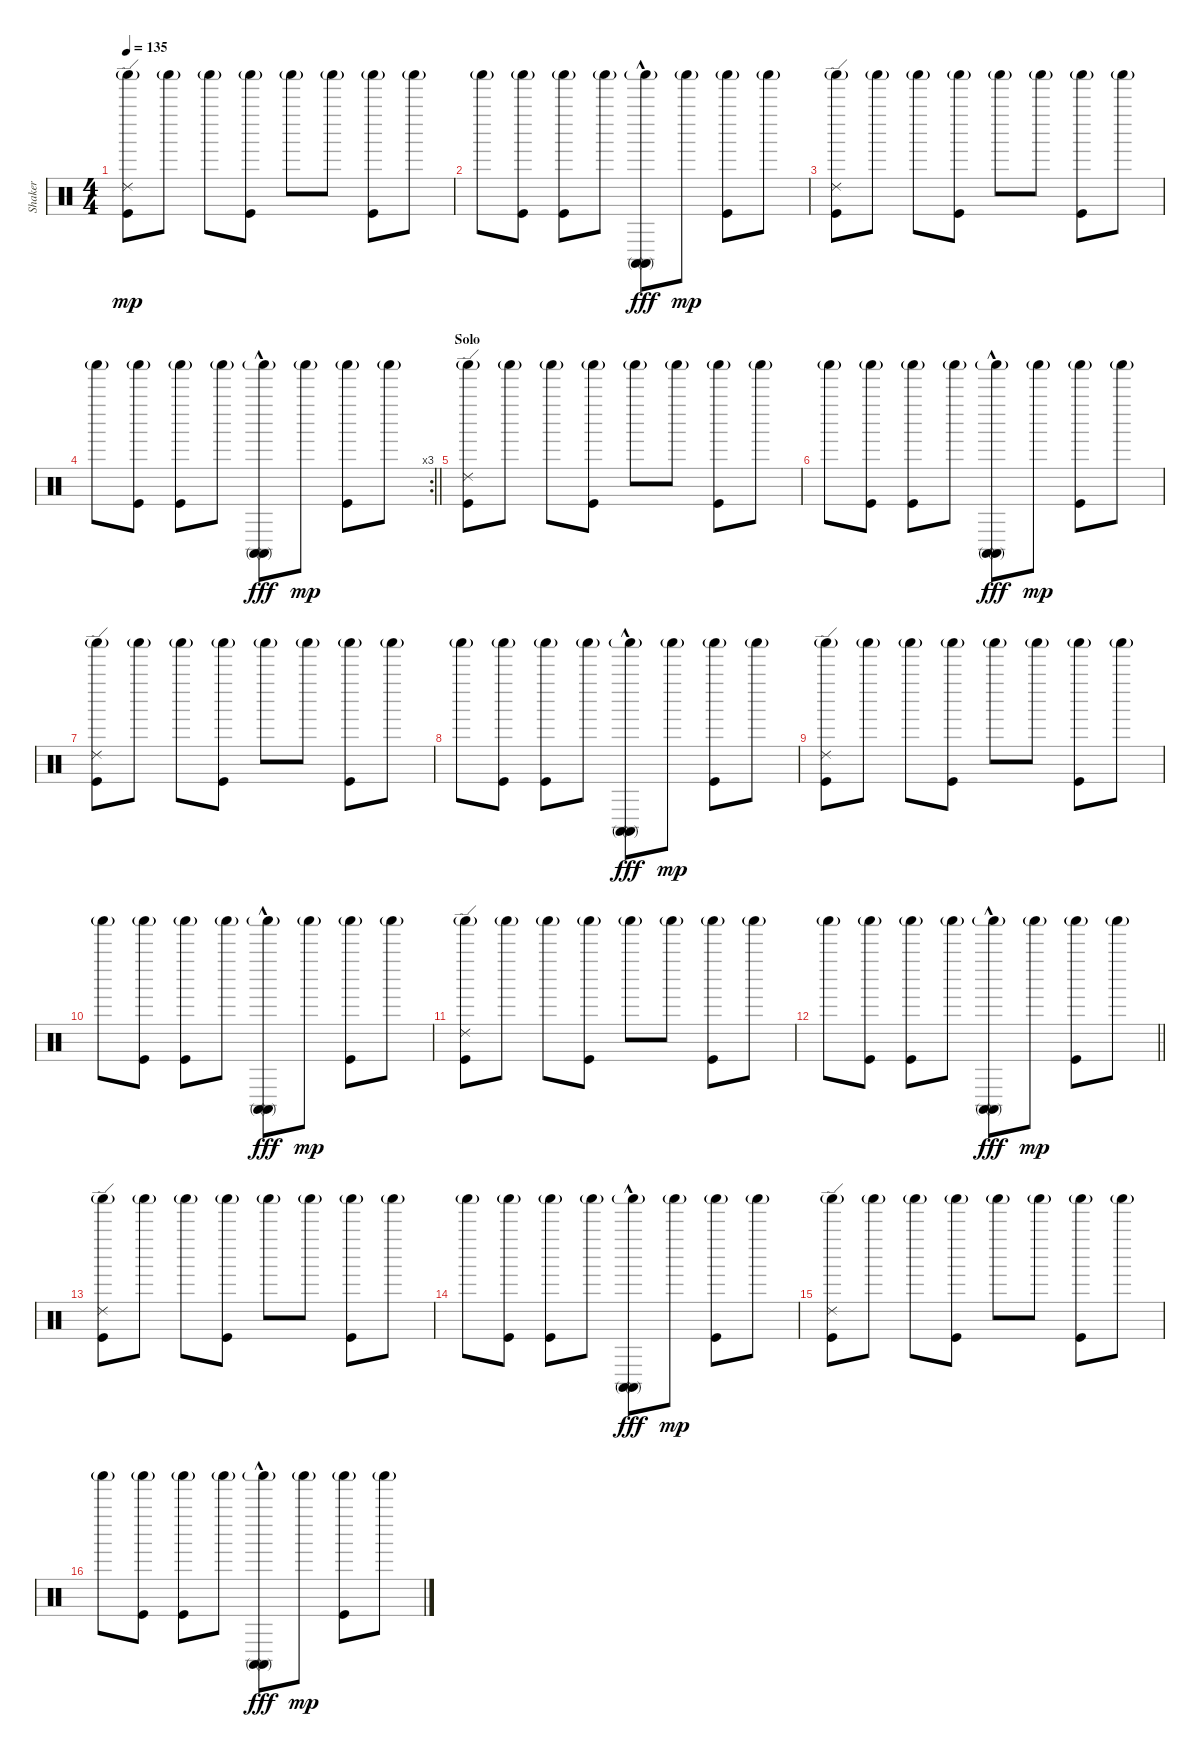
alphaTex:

\track ("Shaker" "Shaker") {instrument percussion}
\staff {score}
\articulation defaults
\ts (4 4)
\tempo 135
\clef neutral
\ks c
("Ride (edge) 2" "Shaker (hit)"{g} "Kick (hit)").8{dy mp} "Shaker (hit)"{g}.8 "Shaker (hit)"{g}.8 ("Shaker (hit)"{g} "Kick (hit)").8 "Shaker (hit)"{g}.8 "Shaker (hit)"{g}.8 ("Shaker (hit)"{g} "Kick (hit)").8 "Shaker (hit)"{g}.8 |
"Shaker (hit)"{g}.8 ("Shaker (hit)"{g} "Kick (hit)").8 ("Shaker (hit)"{g} "Kick (hit)").8 "Shaker (hit)"{g}.8 ("Shaker (hit)"{g} "Conga high (mute)"{hac} "Conga high (mute)"{hac}).8{dy fff} "Shaker (hit)"{g}.8{dy mp} ("Shaker (hit)"{g} "Kick (hit)").8 "Shaker (hit)"{g}.8 |
("Ride (edge) 2" "Shaker (hit)"{g} "Kick (hit)").8 "Shaker (hit)"{g}.8 "Shaker (hit)"{g}.8 ("Shaker (hit)"{g} "Kick (hit)").8 "Shaker (hit)"{g}.8 "Shaker (hit)"{g}.8 ("Shaker (hit)"{g} "Kick (hit)").8 "Shaker (hit)"{g}.8 |
\rc 3
\barLineRight lightlight "Shaker (hit)"{g}.8
("Shaker (hit)"{g} "Kick (hit)").8 ("Shaker (hit)"{g} "Kick (hit)").8 "Shaker (hit)"{g}.8 ("Shaker (hit)"{g} "Conga high (mute)"{hac} "Conga high (mute)"{hac}).8{dy fff} "Shaker (hit)"{g}.8{dy mp} ("Shaker (hit)"{g} "Kick (hit)").8 "Shaker (hit)"{g}.8 |
\section ("" "Solo")
("Ride (edge) 2" "Shaker (hit)"{g} "Kick (hit)").8{volume 11} "Shaker (hit)"{g}.8 "Shaker (hit)"{g}.8 ("Shaker (hit)"{g} "Kick (hit)").8 "Shaker (hit)"{g}.8 "Shaker (hit)"{g}.8 ("Shaker (hit)"{g} "Kick (hit)").8 "Shaker (hit)"{g}.8 |
"Shaker (hit)"{g}.8 ("Shaker (hit)"{g} "Kick (hit)").8 ("Shaker (hit)"{g} "Kick (hit)").8 "Shaker (hit)"{g}.8 ("Shaker (hit)"{g} "Conga high (mute)"{hac} "Conga high (mute)"{hac}).8{dy fff} "Shaker (hit)"{g}.8{dy mp} ("Shaker (hit)"{g} "Kick (hit)").8 "Shaker (hit)"{g}.8 |
("Ride (edge) 2" "Shaker (hit)"{g} "Kick (hit)").8 "Shaker (hit)"{g}.8 "Shaker (hit)"{g}.8 ("Shaker (hit)"{g} "Kick (hit)").8 "Shaker (hit)"{g}.8 "Shaker (hit)"{g}.8 ("Shaker (hit)"{g} "Kick (hit)").8 "Shaker (hit)"{g}.8 |
"Shaker (hit)"{g}.8 ("Shaker (hit)"{g} "Kick (hit)").8 ("Shaker (hit)"{g} "Kick (hit)").8 "Shaker (hit)"{g}.8 ("Shaker (hit)"{g} "Conga high (mute)"{hac} "Conga high (mute)"{hac}).8{dy fff} "Shaker (hit)"{g}.8{dy mp} ("Shaker (hit)"{g} "Kick (hit)").8 "Shaker (hit)"{g}.8 |
("Ride (edge) 2" "Shaker (hit)"{g} "Kick (hit)").8 "Shaker (hit)"{g}.8 "Shaker (hit)"{g}.8 ("Shaker (hit)"{g} "Kick (hit)").8 "Shaker (hit)"{g}.8 "Shaker (hit)"{g}.8 ("Shaker (hit)"{g} "Kick (hit)").8 "Shaker (hit)"{g}.8 |
"Shaker (hit)"{g}.8 ("Shaker (hit)"{g} "Kick (hit)").8 ("Shaker (hit)"{g} "Kick (hit)").8 "Shaker (hit)"{g}.8 ("Shaker (hit)"{g} "Conga high (mute)"{hac} "Conga high (mute)"{hac}).8{dy fff} "Shaker (hit)"{g}.8{dy mp} ("Shaker (hit)"{g} "Kick (hit)").8 "Shaker (hit)"{g}.8 |
("Ride (edge) 2" "Shaker (hit)"{g} "Kick (hit)").8 "Shaker (hit)"{g}.8 "Shaker (hit)"{g}.8 ("Shaker (hit)"{g} "Kick (hit)").8 "Shaker (hit)"{g}.8 "Shaker (hit)"{g}.8 ("Shaker (hit)"{g} "Kick (hit)").8 "Shaker (hit)"{g}.8 |
\barLineRight lightlight "Shaker (hit)"{g}.8
("Shaker (hit)"{g} "Kick (hit)").8 ("Shaker (hit)"{g} "Kick (hit)").8 "Shaker (hit)"{g}.8 ("Shaker (hit)"{g} "Conga high (mute)"{hac} "Conga high (mute)"{hac}).8{dy fff} "Shaker (hit)"{g}.8{dy mp} ("Shaker (hit)"{g} "Kick (hit)").8 "Shaker (hit)"{g}.8 |
("Ride (edge) 2" "Shaker (hit)"{g} "Kick (hit)").8{volume 11} "Shaker (hit)"{g}.8 "Shaker (hit)"{g}.8 ("Shaker (hit)"{g} "Kick (hit)").8 "Shaker (hit)"{g}.8 "Shaker (hit)"{g}.8 ("Shaker (hit)"{g} "Kick (hit)").8 "Shaker (hit)"{g}.8 |
"Shaker (hit)"{g}.8 ("Shaker (hit)"{g} "Kick (hit)").8 ("Shaker (hit)"{g} "Kick (hit)").8 "Shaker (hit)"{g}.8 ("Shaker (hit)"{g} "Conga high (mute)"{hac} "Conga high (mute)"{hac}).8{dy fff} "Shaker (hit)"{g}.8{dy mp} ("Shaker (hit)"{g} "Kick (hit)").8 "Shaker (hit)"{g}.8 |
("Ride (edge) 2" "Shaker (hit)"{g} "Kick (hit)").8 "Shaker (hit)"{g}.8 "Shaker (hit)"{g}.8 ("Shaker (hit)"{g} "Kick (hit)").8 "Shaker (hit)"{g}.8 "Shaker (hit)"{g}.8 ("Shaker (hit)"{g} "Kick (hit)").8 "Shaker (hit)"{g}.8 |
"Shaker (hit)"{g}.8 ("Shaker (hit)"{g} "Kick (hit)").8 ("Shaker (hit)"{g} "Kick (hit)").8 "Shaker (hit)"{g}.8 ("Shaker (hit)"{g} "Conga high (mute)"{hac} "Conga high (mute)"{hac}).8{dy fff} "Shaker (hit)"{g}.8{dy mp} ("Shaker (hit)"{g} "Kick (hit)").8 "Shaker (hit)"{g}.8
